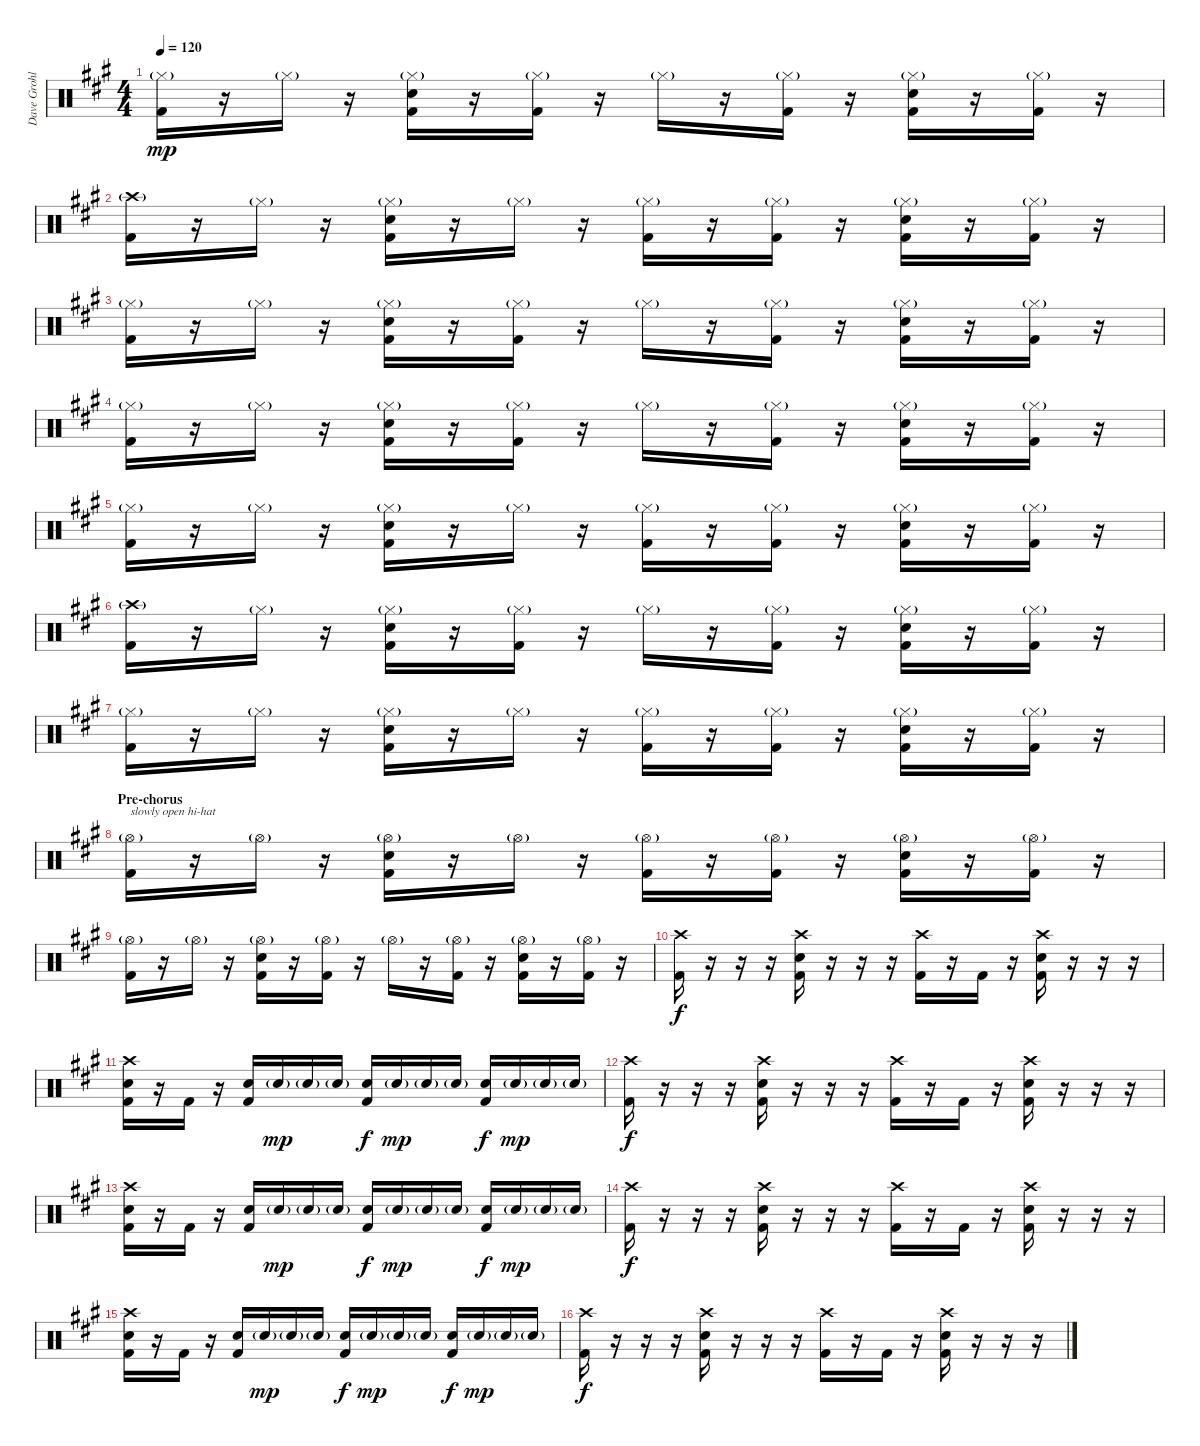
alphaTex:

\track ("Dave Grohl (Drums)" "Dave Grohl") {instrument percussion}
\staff {score}
\articulation defaults
\ts (4 4)
\tempo 120
\clef neutral
\ks a
("Hi-Hat (closed)"{g} "Kick (hit) 2").16{dy mp} r.16 "Hi-Hat (closed)"{g}.16 r.16 ("Hi-Hat (closed)"{g} "Snare (hit) 2" "Kick (hit) 2").16 r.16 ("Hi-Hat (closed)"{g} "Kick (hit) 2").16 r.16 "Hi-Hat (closed)"{g}.16 r.16 ("Hi-Hat (closed)"{g} "Kick (hit) 2").16 r.16 ("Hi-Hat (closed)"{g} "Snare (hit) 2" "Kick (hit) 2").16 r.16 ("Hi-Hat (closed)"{g} "Kick (hit) 2").16 r.16 |
("Crash high (hit)"{g} "Kick (hit) 2").16 r.16 "Hi-Hat (closed)"{g}.16 r.16 ("Hi-Hat (closed)"{g} "Snare (hit) 2" "Kick (hit) 2").16 r.16 "Hi-Hat (closed)"{g}.16 r.16 ("Hi-Hat (closed)"{g} "Kick (hit) 2").16 r.16 ("Hi-Hat (closed)"{g} "Kick (hit) 2").16 r.16 ("Hi-Hat (closed)"{g} "Snare (hit) 2" "Kick (hit) 2").16 r.16 ("Hi-Hat (closed)"{g} "Kick (hit) 2").16 r.16 |
("Hi-Hat (closed)"{g} "Kick (hit) 2").16 r.16 "Hi-Hat (closed)"{g}.16 r.16 ("Hi-Hat (closed)"{g} "Snare (hit) 2" "Kick (hit) 2").16 r.16 ("Hi-Hat (closed)"{g} "Kick (hit) 2").16 r.16 "Hi-Hat (closed)"{g}.16 r.16 ("Hi-Hat (closed)"{g} "Kick (hit) 2").16 r.16 ("Hi-Hat (closed)"{g} "Snare (hit) 2" "Kick (hit) 2").16 r.16 ("Hi-Hat (closed)"{g} "Kick (hit) 2").16 r.16 |
("Hi-Hat (closed)"{g} "Kick (hit) 2").16 r.16 "Hi-Hat (closed)"{g}.16 r.16 ("Hi-Hat (closed)"{g} "Snare (hit) 2" "Kick (hit) 2").16 r.16 ("Hi-Hat (closed)"{g} "Kick (hit) 2").16 r.16 "Hi-Hat (closed)"{g}.16 r.16 ("Hi-Hat (closed)"{g} "Kick (hit) 2").16 r.16 ("Hi-Hat (closed)"{g} "Snare (hit) 2" "Kick (hit) 2").16 r.16 ("Hi-Hat (closed)"{g} "Kick (hit) 2").16 r.16 |
("Hi-Hat (closed)"{g} "Kick (hit) 2").16 r.16 "Hi-Hat (closed)"{g}.16 r.16 ("Hi-Hat (closed)"{g} "Snare (hit) 2" "Kick (hit) 2").16 r.16 "Hi-Hat (closed)"{g}.16 r.16 ("Hi-Hat (closed)"{g} "Kick (hit) 2").16 r.16 ("Hi-Hat (closed)"{g} "Kick (hit) 2").16 r.16 ("Hi-Hat (closed)"{g} "Snare (hit) 2" "Kick (hit) 2").16 r.16 ("Hi-Hat (closed)"{g} "Kick (hit) 2").16 r.16 |
("Crash high (hit)"{g} "Kick (hit) 2").16 r.16 "Hi-Hat (closed)"{g}.16 r.16 ("Hi-Hat (closed)"{g} "Snare (hit) 2" "Kick (hit) 2").16 r.16 ("Hi-Hat (closed)"{g} "Kick (hit) 2").16 r.16 "Hi-Hat (closed)"{g}.16 r.16 ("Hi-Hat (closed)"{g} "Kick (hit) 2").16 r.16 ("Hi-Hat (closed)"{g} "Snare (hit) 2" "Kick (hit) 2").16 r.16 ("Hi-Hat (closed)"{g} "Kick (hit) 2").16 r.16 |
("Hi-Hat (closed)"{g} "Kick (hit) 2").16 r.16 "Hi-Hat (closed)"{g}.16 r.16 ("Hi-Hat (closed)"{g} "Snare (hit) 2" "Kick (hit) 2").16 r.16 "Hi-Hat (closed)"{g}.16 r.16 ("Hi-Hat (closed)"{g} "Kick (hit) 2").16 r.16 ("Hi-Hat (closed)"{g} "Kick (hit) 2").16 r.16 ("Hi-Hat (closed)"{g} "Snare (hit) 2" "Kick (hit) 2").16 r.16 ("Hi-Hat (closed)"{g} "Kick (hit) 2").16 r.16 |
\section ("" "Pre-chorus")
("Hi-Hat (open)"{g} "Kick (hit) 2").16{txt "slowly open hi-hat"} r.16 "Hi-Hat (open)"{g}.16 r.16 ("Hi-Hat (open)"{g} "Snare (hit) 2" "Kick (hit) 2").16 r.16 "Hi-Hat (open)"{g}.16 r.16 ("Hi-Hat (open)"{g} "Kick (hit) 2").16 r.16 ("Hi-Hat (open)"{g} "Kick (hit) 2").16 r.16 ("Hi-Hat (open)"{g} "Snare (hit) 2" "Kick (hit) 2").16 r.16 ("Hi-Hat (open)"{g} "Kick (hit) 2").16 r.16 |
("Hi-Hat (open)"{g} "Kick (hit) 2").16 r.16 "Hi-Hat (open)"{g}.16 r.16 ("Hi-Hat (open)"{g} "Snare (hit) 2" "Kick (hit) 2").16 r.16 ("Hi-Hat (open)"{g} "Kick (hit) 2").16 r.16 "Hi-Hat (open)"{g}.16 r.16 ("Hi-Hat (open)"{g} "Kick (hit) 2").16 r.16 ("Hi-Hat (open)"{g} "Snare (hit) 2" "Kick (hit) 2").16 r.16 ("Hi-Hat (open)"{g} "Kick (hit) 2").16 r.16 |
("Crash high (hit)" "Kick (hit) 2").16{dy f} r.16 r.16 r.16 ("Crash high (hit)" "Snare (hit) 2" "Kick (hit) 2").16 r.16 r.16 r.16 ("Crash high (hit)" "Kick (hit) 2").16 r.16 "Kick (hit) 2".16 r.16 ("Crash high (hit)" "Snare (hit) 2" "Kick (hit) 2").16 r.16 r.16 r.16 |
("Crash high (hit)" "Snare (hit) 2" "Kick (hit) 2").16 r.16 "Kick (hit) 2".16 r.16 ("Snare (hit) 2" "Kick (hit) 2").16 "Snare (hit) 2"{g}.16{dy mp} "Snare (hit) 2"{g}.16 "Snare (hit) 2"{g}.16 ("Snare (hit) 2" "Kick (hit) 2").16{dy f} "Snare (hit) 2"{g}.16{dy mp} "Snare (hit) 2"{g}.16 "Snare (hit) 2"{g}.16 ("Snare (hit) 2" "Kick (hit) 2").16{dy f} "Snare (hit) 2"{g}.16{dy mp} "Snare (hit) 2"{g}.16 "Snare (hit) 2"{g}.16 |
("Crash high (hit)" "Kick (hit) 2").16{dy f} r.16 r.16 r.16 ("Crash high (hit)" "Snare (hit) 2" "Kick (hit) 2").16 r.16 r.16 r.16 ("Crash high (hit)" "Kick (hit) 2").16 r.16 "Kick (hit) 2".16 r.16 ("Crash high (hit)" "Snare (hit) 2" "Kick (hit) 2").16 r.16 r.16 r.16 |
("Crash high (hit)" "Snare (hit) 2" "Kick (hit) 2").16 r.16 "Kick (hit) 2".16 r.16 ("Snare (hit) 2" "Kick (hit) 2").16 "Snare (hit) 2"{g}.16{dy mp} "Snare (hit) 2"{g}.16 "Snare (hit) 2"{g}.16 ("Snare (hit) 2" "Kick (hit) 2").16{dy f} "Snare (hit) 2"{g}.16{dy mp} "Snare (hit) 2"{g}.16 "Snare (hit) 2"{g}.16 ("Snare (hit) 2" "Kick (hit) 2").16{dy f} "Snare (hit) 2"{g}.16{dy mp} "Snare (hit) 2"{g}.16 "Snare (hit) 2"{g}.16 |
("Crash high (hit)" "Kick (hit) 2").16{dy f} r.16 r.16 r.16 ("Crash high (hit)" "Snare (hit) 2" "Kick (hit) 2").16 r.16 r.16 r.16 ("Crash high (hit)" "Kick (hit) 2").16 r.16 "Kick (hit) 2".16 r.16 ("Crash high (hit)" "Snare (hit) 2" "Kick (hit) 2").16 r.16 r.16 r.16 |
("Crash high (hit)" "Snare (hit) 2" "Kick (hit) 2").16 r.16 "Kick (hit) 2".16 r.16 ("Snare (hit) 2" "Kick (hit) 2").16 "Snare (hit) 2"{g}.16{dy mp} "Snare (hit) 2"{g}.16 "Snare (hit) 2"{g}.16 ("Snare (hit) 2" "Kick (hit) 2").16{dy f} "Snare (hit) 2"{g}.16{dy mp} "Snare (hit) 2"{g}.16 "Snare (hit) 2"{g}.16 ("Snare (hit) 2" "Kick (hit) 2").16{dy f} "Snare (hit) 2"{g}.16{dy mp} "Snare (hit) 2"{g}.16 "Snare (hit) 2"{g}.16 |
("Crash high (hit)" "Kick (hit) 2").16{dy f} r.16 r.16 r.16 ("Crash high (hit)" "Snare (hit) 2" "Kick (hit) 2").16 r.16 r.16 r.16 ("Crash high (hit)" "Kick (hit) 2").16 r.16 "Kick (hit) 2".16 r.16 ("Crash high (hit)" "Snare (hit) 2" "Kick (hit) 2").16 r.16 r.16 r.16
